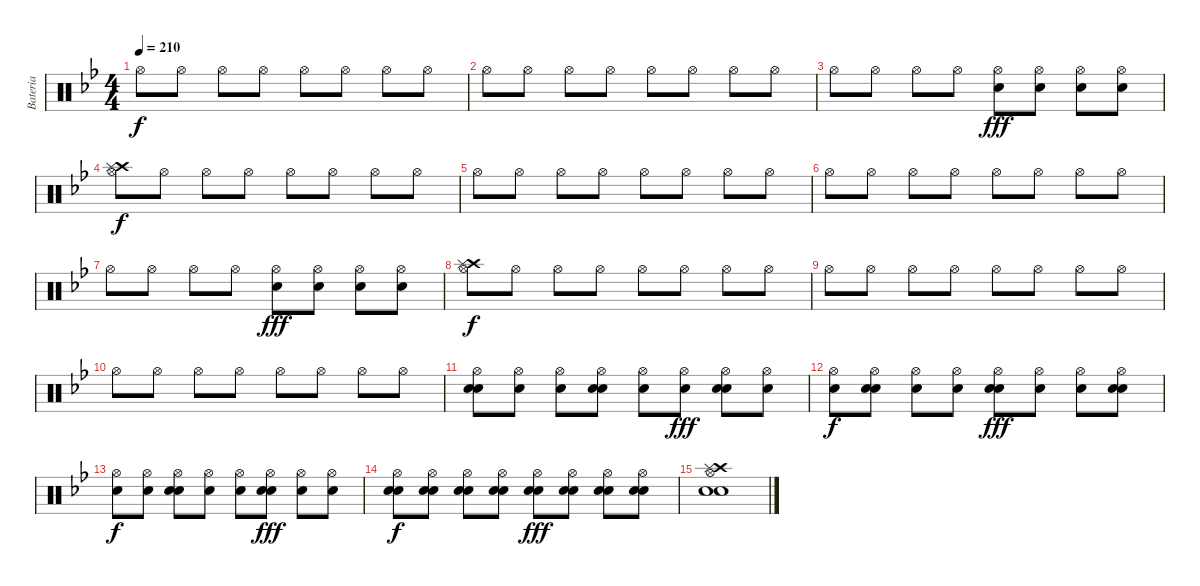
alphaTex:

\track ("Bateria" "Bateria") {instrument percussion}
\staff {score}
\articulation defaults
\ts (4 4)
\tempo 210
\clef neutral
\ks gminor "Hi-Hat (open)".8{dy f} "Hi-Hat (open)".8 "Hi-Hat (open)".8 "Hi-Hat (open)".8 "Hi-Hat (open)".8 "Hi-Hat (open)".8 "Hi-Hat (open)".8 "Hi-Hat (open)".8
|
"Hi-Hat (open)".8 "Hi-Hat (open)".8 "Hi-Hat (open)".8 "Hi-Hat (open)".8 "Hi-Hat (open)".8 "Hi-Hat (open)".8 "Hi-Hat (open)".8 "Hi-Hat (open)".8 |
"Hi-Hat (open)".8 "Hi-Hat (open)".8 "Hi-Hat (open)".8 "Hi-Hat (open)".8 ("Hi-Hat (open)" "Snare (hit) 2").8{dy fff} ("Hi-Hat (open)" "Electric Snare (hit)").8 ("Hi-Hat (open)" "Electric Snare (hit)").8 ("Hi-Hat (open)" "Electric Snare (hit)").8 |
("Hi-Hat (open)" "Crash high (hit)" "Splash (hit)").8{dy f} "Hi-Hat (open)".8 "Hi-Hat (open)".8 "Hi-Hat (open)".8 "Hi-Hat (open)".8 "Hi-Hat (open)".8 "Hi-Hat (open)".8 "Hi-Hat (open)".8 |
"Hi-Hat (open)".8 "Hi-Hat (open)".8 "Hi-Hat (open)".8 "Hi-Hat (open)".8 "Hi-Hat (open)".8 "Hi-Hat (open)".8 "Hi-Hat (open)".8 "Hi-Hat (open)".8 |
"Hi-Hat (open)".8 "Hi-Hat (open)".8 "Hi-Hat (open)".8 "Hi-Hat (open)".8 "Hi-Hat (open)".8 "Hi-Hat (open)".8 "Hi-Hat (open)".8 "Hi-Hat (open)".8 |
"Hi-Hat (open)".8 "Hi-Hat (open)".8 "Hi-Hat (open)".8 "Hi-Hat (open)".8 ("Hi-Hat (open)" "Snare (hit) 2").8{dy fff} ("Hi-Hat (open)" "Electric Snare (hit)").8 ("Hi-Hat (open)" "Electric Snare (hit)").8 ("Hi-Hat (open)" "Electric Snare (hit)").8 |
("Hi-Hat (open)" "Crash high (hit)" "Splash (hit)").8{dy f} "Hi-Hat (open)".8 "Hi-Hat (open)".8 "Hi-Hat (open)".8 "Hi-Hat (open)".8 "Hi-Hat (open)".8 "Hi-Hat (open)".8 "Hi-Hat (open)".8 |
"Hi-Hat (open)".8 "Hi-Hat (open)".8 "Hi-Hat (open)".8 "Hi-Hat (open)".8 "Hi-Hat (open)".8 "Hi-Hat (open)".8 "Hi-Hat (open)".8 "Hi-Hat (open)".8 |
"Hi-Hat (open)".8 "Hi-Hat (open)".8 "Hi-Hat (open)".8 "Hi-Hat (open)".8 "Hi-Hat (open)".8 "Hi-Hat (open)".8 "Hi-Hat (open)".8 "Hi-Hat (open)".8 |
("Hi-Hat (open)" "Snare (hit) 2" "Electric Snare (hit)").8 ("Hi-Hat (open)" "Electric Snare (hit)").8 ("Hi-Hat (open)" "Electric Snare (hit)").8 ("Hi-Hat (open)" "Snare (hit) 2" "Electric Snare (hit)").8 ("Hi-Hat (open)" "Electric Snare (hit)").8 ("Hi-Hat (open)" "Electric Snare (hit)").8{dy fff} ("Hi-Hat (open)" "Snare (hit) 2" "Electric Snare (hit)").8 ("Hi-Hat (open)" "Electric Snare (hit)").8 |
("Hi-Hat (open)" "Electric Snare (hit)").8{dy f} ("Hi-Hat (open)" "Snare (hit) 2" "Electric Snare (hit)").8 ("Hi-Hat (open)" "Electric Snare (hit)").8 ("Hi-Hat (open)" "Electric Snare (hit)").8 ("Hi-Hat (open)" "Snare (hit) 2" "Electric Snare (hit)").8{dy fff} ("Hi-Hat (open)" "Electric Snare (hit)").8 ("Hi-Hat (open)" "Electric Snare (hit)").8 ("Hi-Hat (open)" "Snare (hit) 2" "Electric Snare (hit)").8 |
("Hi-Hat (open)" "Electric Snare (hit)").8{dy f} ("Hi-Hat (open)" "Electric Snare (hit)").8 ("Hi-Hat (open)" "Snare (hit) 2" "Electric Snare (hit)").8 ("Hi-Hat (open)" "Electric Snare (hit)").8 ("Hi-Hat (open)" "Electric Snare (hit)").8 ("Hi-Hat (open)" "Snare (hit) 2" "Electric Snare (hit)").8{dy fff} ("Hi-Hat (open)" "Electric Snare (hit)").8 ("Hi-Hat (open)" "Electric Snare (hit)").8 |
("Hi-Hat (open)" "Snare (hit) 2" "Electric Snare (hit)").8{dy f} ("Hi-Hat (open)" "Snare (hit) 2" "Electric Snare (hit)").8 ("Hi-Hat (open)" "Snare (hit) 2" "Electric Snare (hit)").8 ("Hi-Hat (open)" "Snare (hit) 2" "Electric Snare (hit)").8 ("Hi-Hat (open)" "Snare (hit) 2" "Electric Snare (hit)").8{dy fff} ("Hi-Hat (open)" "Snare (hit) 2" "Electric Snare (hit)").8 ("Hi-Hat (open)" "Snare (hit) 2" "Electric Snare (hit)").8 ("Hi-Hat (open)" "Snare (hit) 2" "Electric Snare (hit)").8 |
("Hi-Hat (open)" "Crash high (hit)" "Splash (hit)" "Electric Snare (hit)" "Snare (hit) 2").1
